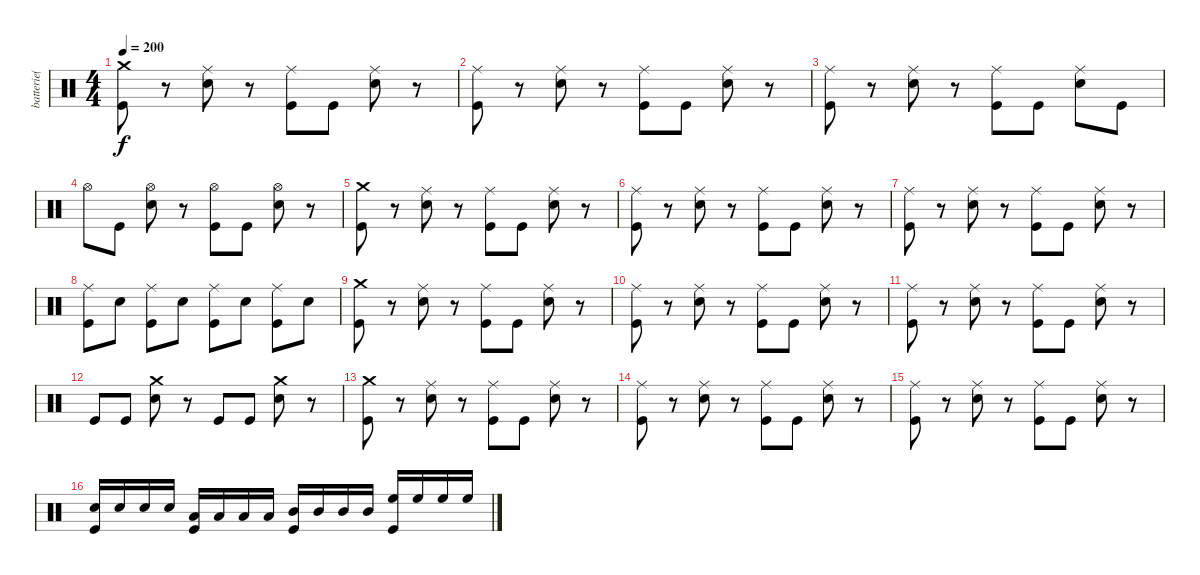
\track ("batterie( Meggers )" "batterie( ") {instrument percussion}
\staff {score}
\articulation defaults
\ts (4 4)
\tempo 200
\clef neutral
\ks c
("Crash medium (hit)" "Kick (hit)").8{dy f} r.8 ("Ride (middle)" "Snare (hit) 2").8 r.8 ("Ride (middle)" "Kick (hit)").8 "Kick (hit)".8 ("Ride (middle)" "Snare (hit) 2").8 r.8 |
("Ride (middle)" "Kick (hit)").8 r.8 ("Ride (middle)" "Snare (hit) 2").8 r.8 ("Ride (middle)" "Kick (hit)").8 "Kick (hit)".8 ("Ride (middle)" "Snare (hit) 2").8 r.8 |
("Ride (middle)" "Kick (hit)").8 r.8 ("Ride (middle)" "Snare (hit) 2").8 r.8 ("Ride (middle)" "Kick (hit)").8 "Kick (hit)".8 ("Ride (middle)" "Snare (hit) 2").8 "Kick (hit)".8 |
"Hi-Hat (open)".8 "Kick (hit)".8 ("Hi-Hat (open)" "Snare (hit) 2").8 r.8 ("Hi-Hat (open)" "Kick (hit)").8 "Kick (hit)".8 ("Hi-Hat (open)" "Snare (hit) 2").8 r.8 |
("Crash medium (hit)" "Kick (hit)").8 r.8 ("Ride (middle)" "Snare (hit) 2").8 r.8 ("Ride (middle)" "Kick (hit)").8 "Kick (hit)".8 ("Ride (middle)" "Snare (hit) 2").8 r.8 |
("Ride (middle)" "Kick (hit)").8 r.8 ("Ride (middle)" "Snare (hit) 2").8 r.8 ("Ride (middle)" "Kick (hit)").8 "Kick (hit)".8 ("Ride (middle)" "Snare (hit) 2").8 r.8 |
("Ride (middle)" "Kick (hit)").8 r.8 ("Ride (middle)" "Snare (hit) 2").8 r.8 ("Ride (middle)" "Kick (hit)").8 "Kick (hit)".8 ("Ride (middle)" "Snare (hit) 2").8 r.8 |
("Ride (middle)" "Kick (hit)").8 "Snare (hit) 2".8 ("Ride (middle)" "Kick (hit)").8 "Snare (hit) 2".8 ("Ride (middle)" "Kick (hit)").8 "Snare (hit) 2".8 ("Ride (middle)" "Kick (hit)").8 "Snare (hit) 2".8 |
("Crash medium (hit)" "Kick (hit)").8 r.8 ("Ride (middle)" "Snare (hit) 2").8 r.8 ("Ride (middle)" "Kick (hit)").8 "Kick (hit)".8 ("Ride (middle)" "Snare (hit) 2").8 r.8 |
("Ride (middle)" "Kick (hit)").8 r.8 ("Ride (middle)" "Snare (hit) 2").8 r.8 ("Ride (middle)" "Kick (hit)").8 "Kick (hit)".8 ("Ride (middle)" "Snare (hit) 2").8 r.8 |
("Ride (middle)" "Kick (hit)").8 r.8 ("Ride (middle)" "Snare (hit) 2").8 r.8 ("Ride (middle)" "Kick (hit)").8 "Kick (hit)".8 ("Ride (middle)" "Snare (hit) 2").8 r.8 |
"Kick (hit)".8 "Kick (hit)".8 ("Crash medium (hit)" "Snare (hit) 2").8 r.8 "Kick (hit)".8 "Kick (hit)".8 ("Crash medium (hit)" "Snare (hit) 2").8 r.8 |
("Crash medium (hit)" "Kick (hit)").8 r.8 ("Ride (middle)" "Snare (hit) 2").8 r.8 ("Ride (middle)" "Kick (hit)").8 "Kick (hit)".8 ("Ride (middle)" "Snare (hit) 2").8 r.8 |
("Ride (middle)" "Kick (hit)").8 r.8 ("Ride (middle)" "Snare (hit) 2").8 r.8 ("Ride (middle)" "Kick (hit)").8 "Kick (hit)".8 ("Ride (middle)" "Snare (hit) 2").8 r.8 |
("Ride (middle)" "Kick (hit)").8 r.8 ("Ride (middle)" "Snare (hit) 2").8 r.8 ("Ride (middle)" "Kick (hit)").8 "Kick (hit)".8 ("Ride (middle)" "Snare (hit) 2").8 r.8 |
("Snare (hit) 2" "Kick (hit)").16 "Snare (hit) 2".16 "Snare (hit) 2".16 "Snare (hit) 2".16 ("Low Tom (hit)" "Kick (hit)").16 "Low Tom (hit)".16 "Low Tom (hit)".16 "Low Tom (hit)".16 ("Mid Tom (hit)" "Kick (hit)").16 "Mid Tom (hit)".16 "Mid Tom (hit)".16 "Mid Tom (hit)".16 ("High Floor Tom (hit)" "Kick (hit)").16 "High Floor Tom (hit)".16 "High Floor Tom (hit)".16 "High Floor Tom (hit)".16
